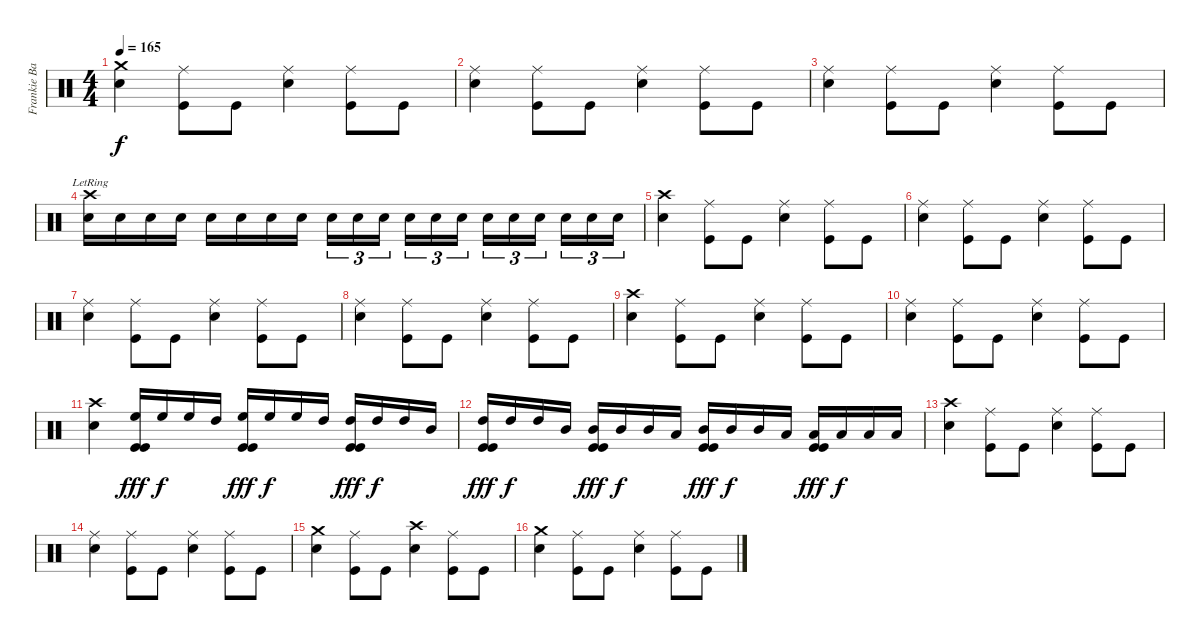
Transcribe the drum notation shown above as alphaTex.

\track ("Frankie Banali/Drums" "Frankie Ba") {instrument percussion}
\staff {score}
\articulation defaults
\ts (4 4)
\tempo 165
\clef neutral
\ks c
("Snare (hit) 2" "Crash medium (hit)").4{dy f} ("Kick (hit)" "Ride (middle)").8 "Kick (hit)".8 ("Snare (hit) 2" "Ride (middle)").4 ("Kick (hit)" "Ride (middle)").8 "Kick (hit)".8 |
("Snare (hit) 2" "Ride (middle)").4 ("Kick (hit)" "Ride (middle)").8 "Kick (hit)".8 ("Snare (hit) 2" "Ride (middle)").4 ("Kick (hit)" "Ride (middle)").8 "Kick (hit)".8 |
("Snare (hit) 2" "Ride (middle)").4 ("Kick (hit)" "Ride (middle)").8 "Kick (hit)".8 ("Snare (hit) 2" "Ride (middle)").4 ("Kick (hit)" "Ride (middle)").8 "Kick (hit)".8 |
("Snare (hit) 2" "Crash high (hit)"{lr}).16 "Snare (hit) 2".16 "Snare (hit) 2".16 "Snare (hit) 2".16 "Snare (hit) 2".16 "Snare (hit) 2".16 "Snare (hit) 2".16 "Snare (hit) 2".16 "Snare (hit) 2".16{tu (3 2)} "Snare (hit) 2".16{tu (3 2)} "Snare (hit) 2".16{tu (3 2)} "Snare (hit) 2".16{tu (3 2)} "Snare (hit) 2".16{tu (3 2)} "Snare (hit) 2".16{tu (3 2)} "Snare (hit) 2".16{tu (3 2)} "Snare (hit) 2".16{tu (3 2)} "Snare (hit) 2".16{tu (3 2)} "Snare (hit) 2".16{tu (3 2)} "Snare (hit) 2".16{tu (3 2)} "Snare (hit) 2".16{tu (3 2)} |
("Snare (hit) 2" "Crash high (hit)").4 ("Kick (hit)" "Ride (middle)").8 "Kick (hit)".8 ("Snare (hit) 2" "Ride (middle)").4 ("Kick (hit)" "Ride (middle)").8 "Kick (hit)".8 |
("Snare (hit) 2" "Ride (middle)").4 ("Kick (hit)" "Ride (middle)").8 "Kick (hit)".8 ("Snare (hit) 2" "Ride (middle)").4 ("Kick (hit)" "Ride (middle)").8 "Kick (hit)".8 |
("Snare (hit) 2" "Ride (middle)").4 ("Kick (hit)" "Ride (middle)").8 "Kick (hit)".8 ("Snare (hit) 2" "Ride (middle)").4 ("Kick (hit)" "Ride (middle)").8 "Kick (hit)".8 |
("Snare (hit) 2" "Ride (middle)").4 ("Kick (hit)" "Ride (middle)").8 "Kick (hit)".8 ("Snare (hit) 2" "Ride (middle)").4 ("Kick (hit)" "Ride (middle)").8 "Kick (hit)".8 |
("Snare (hit) 2" "Crash high (hit)").4 ("Kick (hit)" "Ride (middle)").8 "Kick (hit)".8 ("Snare (hit) 2" "Ride (middle)").4 ("Kick (hit)" "Ride (middle)").8 "Kick (hit)".8 |
("Snare (hit) 2" "Ride (middle)").4 ("Kick (hit)" "Ride (middle)").8 "Kick (hit)".8 ("Snare (hit) 2" "Ride (middle)").4 ("Kick (hit)" "Ride (middle)").8 "Kick (hit)".8 |
("Snare (hit) 2" "Crash high (hit)").4 ("High Floor Tom (hit)" "Kick (hit)" "Kick (hit)").16{dy fff} "High Floor Tom (hit)".16{dy f} "High Floor Tom (hit)".16 "High Tom (hit)".16 ("High Floor Tom (hit)" "Kick (hit)" "Kick (hit)").16{dy fff} "High Floor Tom (hit)".16{dy f} "High Floor Tom (hit)".16 "High Tom (hit)".16 ("High Tom (hit)" "Kick (hit)" "Kick (hit)").16{dy fff} "High Tom (hit)".16{dy f} "High Tom (hit)".16 "Mid Tom (hit)".16 |
("High Tom (hit)" "Kick (hit)" "Kick (hit)").16{dy fff} "High Tom (hit)".16{dy f} "High Tom (hit)".16 "Mid Tom (hit)".16 ("Mid Tom (hit)" "Kick (hit)" "Kick (hit)").16{dy fff} "Mid Tom (hit)".16{dy f} "Mid Tom (hit)".16 "Low Tom (hit)".16 ("Mid Tom (hit)" "Kick (hit)" "Kick (hit)").16{dy fff} "Mid Tom (hit)".16{dy f} "Mid Tom (hit)".16 "Low Tom (hit)".16 ("Low Tom (hit)" "Kick (hit)" "Kick (hit)").16{dy fff} "Low Tom (hit)".16{dy f} "Low Tom (hit)".16 "Low Tom (hit)".16 |
("Snare (hit) 2" "Crash high (hit)").4 ("Kick (hit)" "Ride (middle)").8 "Kick (hit)".8 ("Snare (hit) 2" "Ride (middle)").4 ("Kick (hit)" "Ride (middle)").8 "Kick (hit)".8 |
("Snare (hit) 2" "Ride (middle)").4 ("Kick (hit)" "Ride (middle)").8 "Kick (hit)".8 ("Snare (hit) 2" "Ride (middle)").4 ("Kick (hit)" "Ride (middle)").8 "Kick (hit)".8 |
("Snare (hit) 2" "Crash medium (hit)").4 ("Kick (hit)" "Ride (middle)").8 "Kick (hit)".8 ("Snare (hit) 2" "Crash high (hit)").4 ("Kick (hit)" "Ride (middle)").8 "Kick (hit)".8 |
("Snare (hit) 2" "Crash medium (hit)").4 ("Kick (hit)" "Ride (middle)").8 "Kick (hit)".8 ("Snare (hit) 2" "Ride (middle)").4 ("Kick (hit)" "Ride (middle)").8 "Kick (hit)".8
